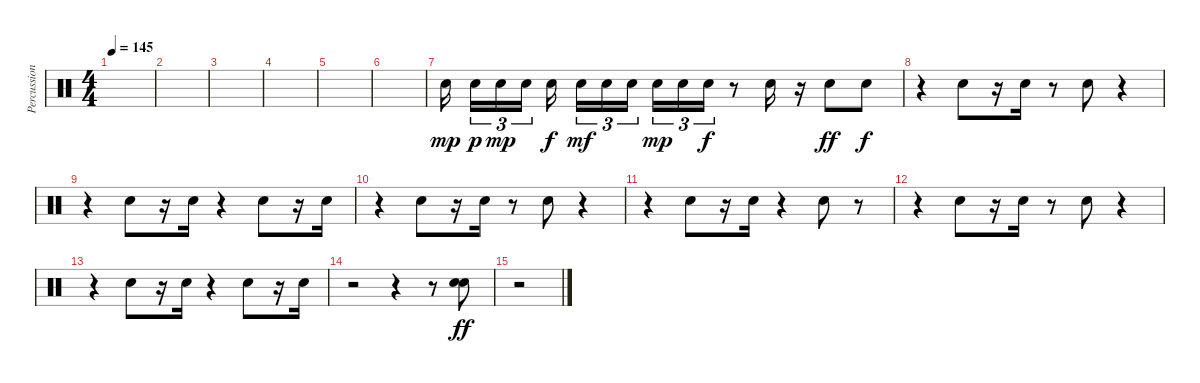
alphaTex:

\track ("Percussion" "Percussion") {instrument percussion}
\staff {score}
\articulation defaults
\ts (4 4)
\tempo 145
\clef neutral
\ks c
|
|
|
|
|
|
"Snare (hit) 2".16{dy mp} "Snare (hit) 2".16{tu (3 2) dy p} "Snare (hit) 2".16{tu (3 2) dy mp} "Snare (hit) 2".16{tu (3 2)} "Snare (hit) 2".16{dy f} "Snare (hit) 2".16{tu (3 2) dy mf} "Snare (hit) 2".16{tu (3 2)} "Snare (hit) 2".16{tu (3 2)} "Snare (hit) 2".16{tu (3 2) dy mp} "Snare (hit) 2".16{tu (3 2)} "Snare (hit) 2".16{tu (3 2) dy f} r.8 "Snare (hit) 2".16 r.16 "Snare (hit) 2".8{dy ff} "Snare (hit) 2".8{dy f} |
r.4 "Snare (hit) 2".8 r.16 "Snare (hit) 2".16 r.8 "Snare (hit) 2".8 r.4 |
r.4 "Snare (hit) 2".8 r.16 "Snare (hit) 2".16 r.4 "Snare (hit) 2".8 r.16 "Snare (hit) 2".16 |
r.4 "Snare (hit) 2".8 r.16 "Snare (hit) 2".16 r.8 "Snare (hit) 2".8 r.4 |
r.4 "Snare (hit) 2".8 r.16 "Snare (hit) 2".16 r.4 "Snare (hit) 2".8 r.8 |
r.4 "Snare (hit) 2".8 r.16 "Snare (hit) 2".16 r.8 "Snare (hit) 2".8 r.4 |
r.4 "Snare (hit) 2".8 r.16 "Snare (hit) 2".16 r.4 "Snare (hit) 2".8 r.16 "Snare (hit) 2".16 |
r.2 r.4 r.8 ("Snare (hit) 2" "Electric Snare (hit)").8{dy ff} |
r.2
